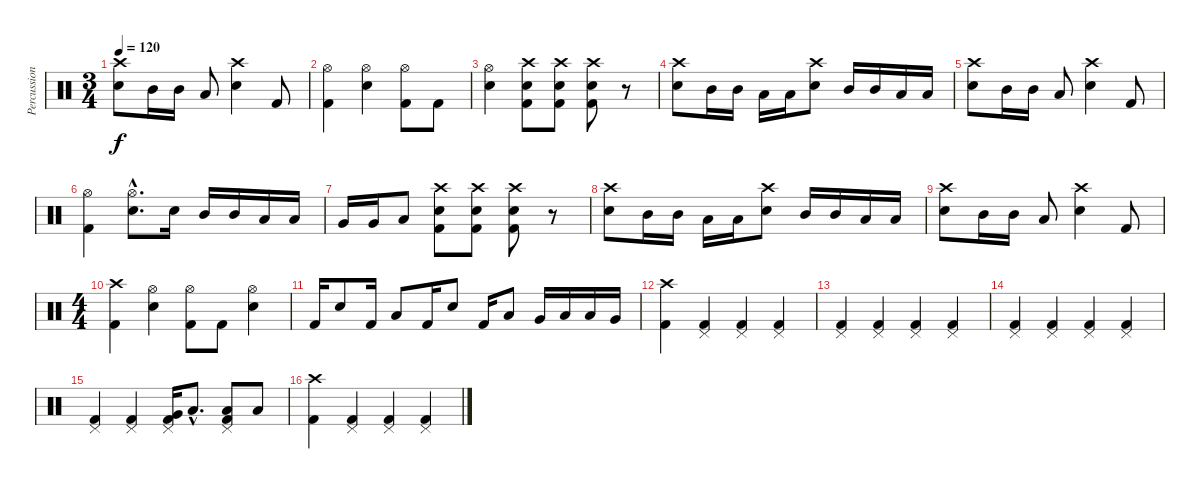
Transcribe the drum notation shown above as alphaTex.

\track ("Percussion" "Percussion") {instrument percussion}
\staff {score}
\articulation defaults
\ts (3 4)
\tempo 120
\clef neutral
\ks c
("Crash high (hit)" "Snare (hit) 2").8{dy f} "Mid Tom (hit)".16 "Mid Tom (hit)".16 "Low Tom (hit)".8 ("Crash high (hit)" "Snare (hit) 2").4 "Kick (hit) 2".8 |
("Hi-Hat (open)" "Kick (hit) 2").4 ("Hi-Hat (open)" "Snare (hit) 2").4 ("Hi-Hat (open)" "Kick (hit) 2").8 "Kick (hit) 2".8 |
("Hi-Hat (open)" "Snare (hit) 2").4 ("Crash high (hit)" "Snare (hit) 2" "Kick (hit) 2").8 ("Crash high (hit)" "Snare (hit) 2" "Kick (hit) 2").8 ("Crash high (hit)" "Snare (hit) 2" "Kick (hit) 2").8 r.8 |
("Crash high (hit)" "Snare (hit) 2").8 "Mid Tom (hit)".16 "Mid Tom (hit)".16 "Low Tom (hit)".16 "Low Tom (hit)".16 ("Crash high (hit)" "Snare (hit) 2").8 "Mid Tom (hit)".16 "Mid Tom (hit)".16 "Low Tom (hit)".16 "Low Tom (hit)".16 |
("Crash high (hit)" "Snare (hit) 2").8 "Mid Tom (hit)".16 "Mid Tom (hit)".16 "Low Tom (hit)".8 ("Crash high (hit)" "Snare (hit) 2").4 "Kick (hit) 2".8 |
("Hi-Hat (open)" "Kick (hit) 2").4 ("Hi-Hat (open)"{hac} "Snare (hit) 2"{hac}).8{d} "Snare (hit) 2".16 "Mid Tom (hit)".16 "Mid Tom (hit)".16 "Low Tom (hit)".16 "Low Tom (hit)".16 |
"Very Low Tom (hit)".16 "Very Low Tom (hit)".16 "Low Floor Tom (hit)".8 ("Crash high (hit)" "Snare (hit) 2" "Kick (hit) 2").8 ("Crash high (hit)" "Snare (hit) 2" "Kick (hit) 2").8 ("Crash high (hit)" "Snare (hit) 2" "Kick (hit) 2").8 r.8 |
("Crash high (hit)" "Snare (hit) 2").8 "Mid Tom (hit)".16 "Mid Tom (hit)".16 "Low Tom (hit)".16 "Low Tom (hit)".16 ("Crash high (hit)" "Snare (hit) 2").8 "Mid Tom (hit)".16 "Mid Tom (hit)".16 "Low Tom (hit)".16 "Low Tom (hit)".16 |
("Crash high (hit)" "Snare (hit) 2").8 "Mid Tom (hit)".16 "Mid Tom (hit)".16 "Low Tom (hit)".8 ("Crash high (hit)" "Snare (hit) 2").4 "Kick (hit) 2".8 |
\ts (4 4)
("Crash high (hit)" "Kick (hit) 2").4 ("Hi-Hat (open)" "Snare (hit) 2").4 ("Hi-Hat (open)" "Kick (hit) 2").8 "Kick (hit) 2".8 ("Hi-Hat (open)" "Snare (hit) 2").4 |
"Kick (hit) 2".16 "Snare (hit) 2".8 "Kick (hit) 2".16 "Low Tom (hit)".8 "Kick (hit) 2".16 "Snare (hit) 2".8 "Kick (hit) 2".16 "Low Tom (hit)".8 "Very Low Tom (hit)".16 "Low Tom (hit)".16 "Low Tom (hit)".16 "Very Low Tom (hit)".16 |
("Crash high (hit)" "Kick (hit) 2").4 ("Pedal Hi-Hat (hit)" "Kick (hit) 2").4 ("Pedal Hi-Hat (hit)" "Kick (hit) 2").4 ("Pedal Hi-Hat (hit)" "Kick (hit) 2").4 |
("Pedal Hi-Hat (hit)" "Kick (hit) 2").4 ("Pedal Hi-Hat (hit)" "Kick (hit) 2").4 ("Pedal Hi-Hat (hit)" "Kick (hit) 2").4 ("Pedal Hi-Hat (hit)" "Kick (hit) 2").4 |
("Pedal Hi-Hat (hit)" "Kick (hit) 2").4 ("Pedal Hi-Hat (hit)" "Kick (hit) 2").4 ("Pedal Hi-Hat (hit)" "Kick (hit) 2").4 ("Pedal Hi-Hat (hit)" "Kick (hit) 2").4 |
("Pedal Hi-Hat (hit)" "Kick (hit) 2").4 ("Pedal Hi-Hat (hit)" "Kick (hit) 2").4 ("Pedal Hi-Hat (hit)" "Very Low Tom (hit)" "Kick (hit) 2").16 "Low Tom (hit)"{hac}.8{d} ("Pedal Hi-Hat (hit)" "Low Tom (hit)" "Kick (hit) 2").8 "Low Tom (hit)".8 |
("Crash high (hit)" "Kick (hit) 2").4 ("Pedal Hi-Hat (hit)" "Kick (hit) 2").4 ("Pedal Hi-Hat (hit)" "Kick (hit) 2").4 ("Pedal Hi-Hat (hit)" "Kick (hit) 2").4
